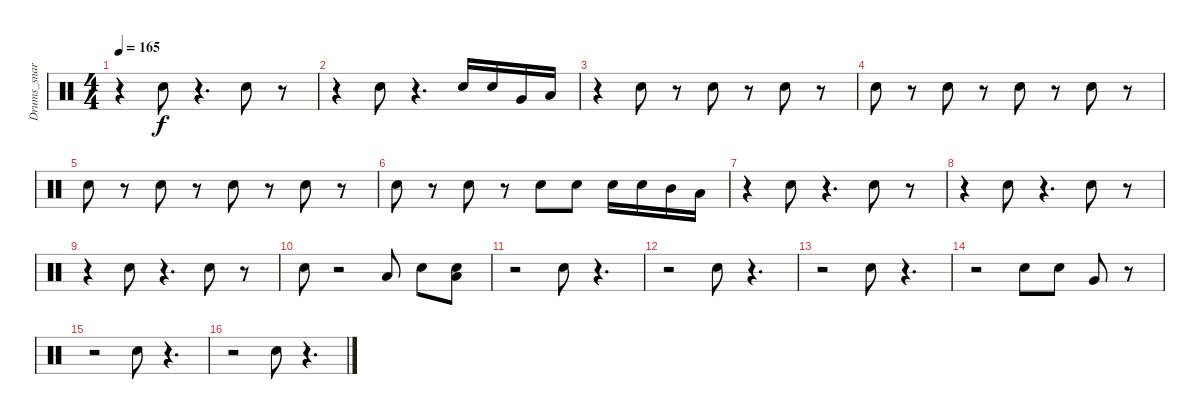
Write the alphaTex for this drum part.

\track ("Drums_snare&tom" "Drums_snar") {instrument percussion}
\staff {score}
\articulation defaults
\ts (4 4)
\tempo 165
\clef neutral
\ks c
r.4{dy f} "Snare (hit) 2".8 r.4{d} "Snare (hit) 2".8 r.8 |
r.4 "Snare (hit) 2".8 r.4{d} "Snare (hit) 2".16 "Snare (hit) 2".16 "Very Low Tom (hit)".16 "Low Floor Tom (hit)".16 |
r.4 "Snare (hit) 2".8 r.8 "Snare (hit) 2".8 r.8 "Snare (hit) 2".8 r.8 |
"Snare (hit) 2".8 r.8 "Snare (hit) 2".8 r.8 "Snare (hit) 2".8 r.8 "Snare (hit) 2".8 r.8 |
"Snare (hit) 2".8 r.8 "Snare (hit) 2".8 r.8 "Snare (hit) 2".8 r.8 "Snare (hit) 2".8 r.8 |
"Snare (hit) 2".8 r.8 "Snare (hit) 2".8 r.8 "Snare (hit) 2".8 "Snare (hit) 2".8 "Snare (hit) 2".16 "Snare (hit) 2".16 "Mid Tom (hit)".16 "Low Tom (hit)".16 |
r.4 "Snare (hit) 2".8 r.4{d} "Snare (hit) 2".8 r.8 |
r.4 "Snare (hit) 2".8 r.4{d} "Snare (hit) 2".8 r.8 |
r.4 "Snare (hit) 2".8 r.4{d} "Snare (hit) 2".8 r.8 |
"Snare (hit) 2".8 r.2 "Low Floor Tom (hit)".8 "Snare (hit) 2".8 ("Low Floor Tom (hit)" "Snare (hit) 2").8 |
r.2 "Snare (hit) 2".8 r.4{d} |
r.2 "Snare (hit) 2".8 r.4{d} |
r.2 "Snare (hit) 2".8 r.4{d} |
r.2 "Snare (hit) 2".8 "Snare (hit) 2".8 "Very Low Tom (hit)".8 r.8 |
r.2 "Snare (hit) 2".8 r.4{d} |
r.2 "Snare (hit) 2".8 r.4{d}
